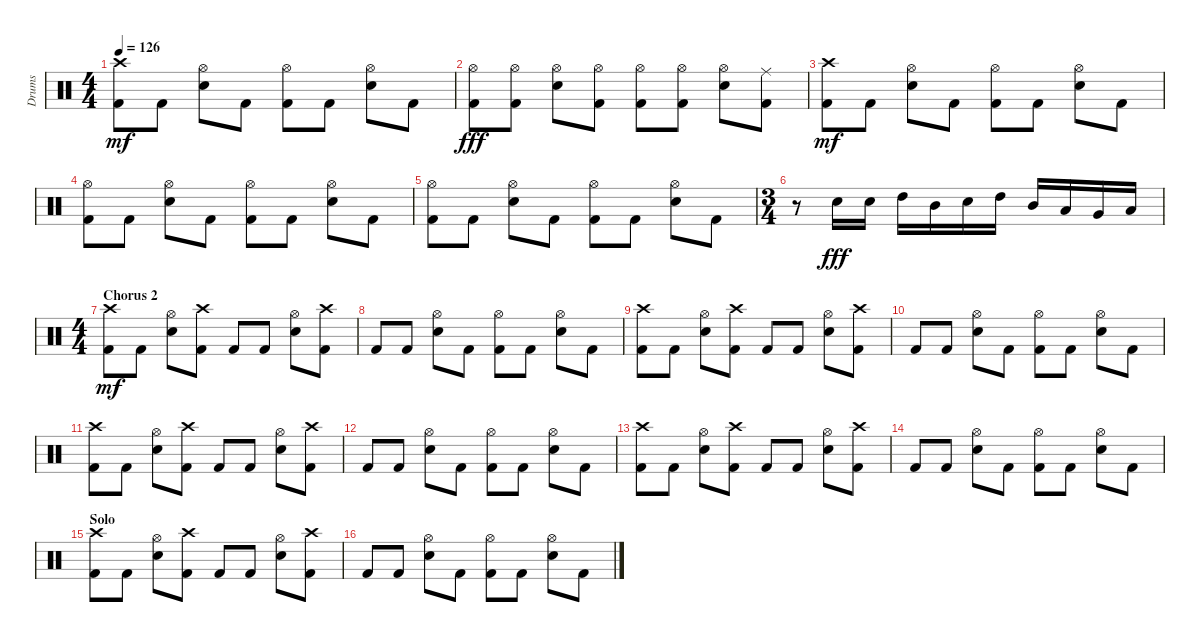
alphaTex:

\track ("Drums" "Drums") {instrument percussion}
\staff {score}
\articulation defaults
\ts (4 4)
\tempo 126
\clef neutral
\ks c
("Crash high (hit)" "Kick (hit) 2").8{dy mf} "Kick (hit) 2".8 ("Hi-Hat (open)" "Electric Snare (hit)").8 "Kick (hit) 2".8 ("Hi-Hat (open)" "Kick (hit) 2").8 "Kick (hit) 2".8 ("Hi-Hat (open)" "Electric Snare (hit)").8 "Kick (hit) 2".8 |
("Hi-Hat (open)" "Kick (hit) 2").8{dy fff} ("Hi-Hat (open)" "Kick (hit) 2").8 ("Hi-Hat (open)" "Electric Snare (hit)").8 ("Hi-Hat (open)" "Kick (hit) 2").8 ("Hi-Hat (open)" "Kick (hit) 2").8 ("Hi-Hat (open)" "Kick (hit) 2").8 ("Hi-Hat (open)" "Electric Snare (hit)").8 ("Ride (middle)" "Kick (hit) 2").8 |
("Crash high (hit)" "Kick (hit) 2").8{dy mf} "Kick (hit) 2".8 ("Hi-Hat (open)" "Electric Snare (hit)").8 "Kick (hit) 2".8 ("Hi-Hat (open)" "Kick (hit) 2").8 "Kick (hit) 2".8 ("Hi-Hat (open)" "Electric Snare (hit)").8 "Kick (hit) 2".8 |
("Hi-Hat (open)" "Kick (hit) 2").8 "Kick (hit) 2".8 ("Hi-Hat (open)" "Electric Snare (hit)").8 "Kick (hit) 2".8 ("Hi-Hat (open)" "Kick (hit) 2").8 "Kick (hit) 2".8 ("Hi-Hat (open)" "Electric Snare (hit)").8 "Kick (hit) 2".8 |
("Hi-Hat (open)" "Kick (hit) 2").8 "Kick (hit) 2".8 ("Hi-Hat (open)" "Electric Snare (hit)").8 "Kick (hit) 2".8 ("Hi-Hat (open)" "Kick (hit) 2").8 "Kick (hit) 2".8 ("Hi-Hat (open)" "Electric Snare (hit)").8 "Kick (hit) 2".8 |
\ts (3 4)
r.8 "Electric Snare (hit)".16{dy fff} "Electric Snare (hit)".16 "High Tom (hit)".16 "Mid Tom (hit)".16 "Electric Snare (hit)".16 "High Tom (hit)".16 "Mid Tom (hit)".16 "Low Tom (hit)".16 "Very Low Tom (hit)".16 "Low Floor Tom (hit)".16 |
\ts (4 4)
\section ("" "Chorus 2")
("Crash high (hit)" "Kick (hit) 2").8{dy mf} "Kick (hit) 2".8 ("Hi-Hat (open)" "Electric Snare (hit)").8 ("Crash high (hit)" "Kick (hit) 2").8 "Kick (hit) 2".8 "Kick (hit) 2".8 ("Hi-Hat (open)" "Electric Snare (hit)").8 ("Crash high (hit)" "Kick (hit) 2").8 |
"Kick (hit) 2".8 "Kick (hit) 2".8 ("Hi-Hat (open)" "Electric Snare (hit)").8 "Kick (hit) 2".8 ("Hi-Hat (open)" "Kick (hit) 2").8 "Kick (hit) 2".8 ("Hi-Hat (open)" "Electric Snare (hit)").8 "Kick (hit) 2".8 |
("Crash high (hit)" "Kick (hit) 2").8 "Kick (hit) 2".8 ("Hi-Hat (open)" "Electric Snare (hit)").8 ("Crash high (hit)" "Kick (hit) 2").8 "Kick (hit) 2".8 "Kick (hit) 2".8 ("Hi-Hat (open)" "Electric Snare (hit)").8 ("Crash high (hit)" "Kick (hit) 2").8 |
"Kick (hit) 2".8 "Kick (hit) 2".8 ("Hi-Hat (open)" "Electric Snare (hit)").8 "Kick (hit) 2".8 ("Hi-Hat (open)" "Kick (hit) 2").8 "Kick (hit) 2".8 ("Hi-Hat (open)" "Electric Snare (hit)").8 "Kick (hit) 2".8 |
("Crash high (hit)" "Kick (hit) 2").8 "Kick (hit) 2".8 ("Hi-Hat (open)" "Electric Snare (hit)").8 ("Crash high (hit)" "Kick (hit) 2").8 "Kick (hit) 2".8 "Kick (hit) 2".8 ("Hi-Hat (open)" "Electric Snare (hit)").8 ("Crash high (hit)" "Kick (hit) 2").8 |
"Kick (hit) 2".8 "Kick (hit) 2".8 ("Hi-Hat (open)" "Electric Snare (hit)").8 "Kick (hit) 2".8 ("Hi-Hat (open)" "Kick (hit) 2").8 "Kick (hit) 2".8 ("Hi-Hat (open)" "Electric Snare (hit)").8 "Kick (hit) 2".8 |
("Crash high (hit)" "Kick (hit) 2").8 "Kick (hit) 2".8 ("Hi-Hat (open)" "Electric Snare (hit)").8 ("Crash high (hit)" "Kick (hit) 2").8 "Kick (hit) 2".8 "Kick (hit) 2".8 ("Hi-Hat (open)" "Electric Snare (hit)").8 ("Crash high (hit)" "Kick (hit) 2").8 |
"Kick (hit) 2".8 "Kick (hit) 2".8 ("Hi-Hat (open)" "Electric Snare (hit)").8 "Kick (hit) 2".8 ("Hi-Hat (open)" "Kick (hit) 2").8 "Kick (hit) 2".8 ("Hi-Hat (open)" "Electric Snare (hit)").8 "Kick (hit) 2".8 |
\section ("" "Solo")
("Crash high (hit)" "Kick (hit) 2").8 "Kick (hit) 2".8 ("Hi-Hat (open)" "Electric Snare (hit)").8 ("Crash high (hit)" "Kick (hit) 2").8 "Kick (hit) 2".8 "Kick (hit) 2".8 ("Hi-Hat (open)" "Electric Snare (hit)").8 ("Crash high (hit)" "Kick (hit) 2").8 |
"Kick (hit) 2".8 "Kick (hit) 2".8 ("Hi-Hat (open)" "Electric Snare (hit)").8 "Kick (hit) 2".8 ("Hi-Hat (open)" "Kick (hit) 2").8 "Kick (hit) 2".8 ("Hi-Hat (open)" "Electric Snare (hit)").8 "Kick (hit) 2".8
